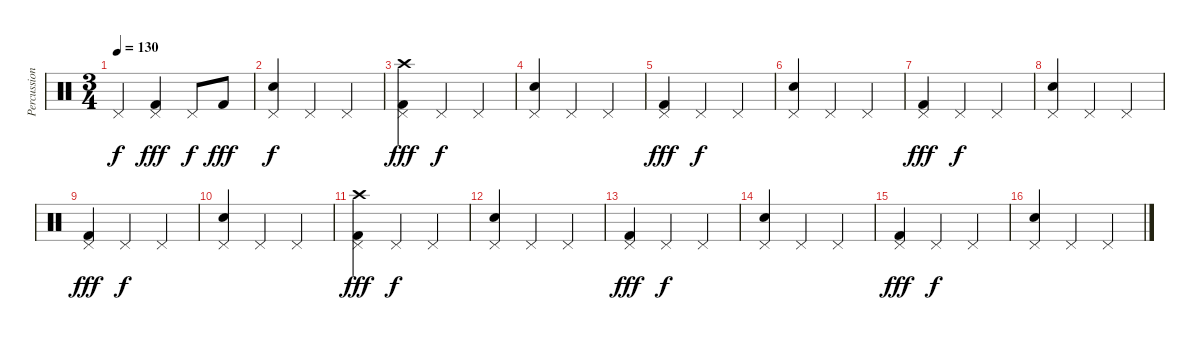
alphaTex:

\track ("Percussion" "Percussion") {instrument percussion}
\staff {score}
\articulation defaults
\ts (3 4)
\tempo 130
\clef neutral
\ks c "Pedal Hi-Hat (hit)".4{dy f}
("Pedal Hi-Hat (hit)" "Kick (hit) 2").4{dy fff} "Pedal Hi-Hat (hit)".8{dy f} "Kick (hit) 2".8{dy fff} |
("Pedal Hi-Hat (hit)" "Electric Snare (hit)").4{dy f} "Pedal Hi-Hat (hit)".4 "Pedal Hi-Hat (hit)".4 |
("Crash high (hit)" "Pedal Hi-Hat (hit)" "Kick (hit) 2").4{dy fff} "Pedal Hi-Hat (hit)".4{dy f} "Pedal Hi-Hat (hit)".4 |
("Pedal Hi-Hat (hit)" "Electric Snare (hit)").4 "Pedal Hi-Hat (hit)".4 "Pedal Hi-Hat (hit)".4 |
("Pedal Hi-Hat (hit)" "Kick (hit) 2").4{dy fff} "Pedal Hi-Hat (hit)".4{dy f} "Pedal Hi-Hat (hit)".4 |
("Pedal Hi-Hat (hit)" "Electric Snare (hit)").4 "Pedal Hi-Hat (hit)".4 "Pedal Hi-Hat (hit)".4 |
("Pedal Hi-Hat (hit)" "Kick (hit) 2").4{dy fff} "Pedal Hi-Hat (hit)".4{dy f} "Pedal Hi-Hat (hit)".4 |
("Pedal Hi-Hat (hit)" "Electric Snare (hit)").4 "Pedal Hi-Hat (hit)".4 "Pedal Hi-Hat (hit)".4 |
("Pedal Hi-Hat (hit)" "Kick (hit) 2").4{dy fff} "Pedal Hi-Hat (hit)".4{dy f} "Pedal Hi-Hat (hit)".4 |
("Pedal Hi-Hat (hit)" "Electric Snare (hit)").4 "Pedal Hi-Hat (hit)".4 "Pedal Hi-Hat (hit)".4 |
("Crash high (hit)" "Pedal Hi-Hat (hit)" "Kick (hit) 2").4{dy fff} "Pedal Hi-Hat (hit)".4{dy f} "Pedal Hi-Hat (hit)".4 |
("Pedal Hi-Hat (hit)" "Electric Snare (hit)").4 "Pedal Hi-Hat (hit)".4 "Pedal Hi-Hat (hit)".4 |
("Pedal Hi-Hat (hit)" "Kick (hit) 2").4{dy fff} "Pedal Hi-Hat (hit)".4{dy f} "Pedal Hi-Hat (hit)".4 |
("Pedal Hi-Hat (hit)" "Electric Snare (hit)").4 "Pedal Hi-Hat (hit)".4 "Pedal Hi-Hat (hit)".4 |
("Pedal Hi-Hat (hit)" "Kick (hit) 2").4{dy fff} "Pedal Hi-Hat (hit)".4{dy f} "Pedal Hi-Hat (hit)".4 |
("Pedal Hi-Hat (hit)" "Electric Snare (hit)").4 "Pedal Hi-Hat (hit)".4 "Pedal Hi-Hat (hit)".4
